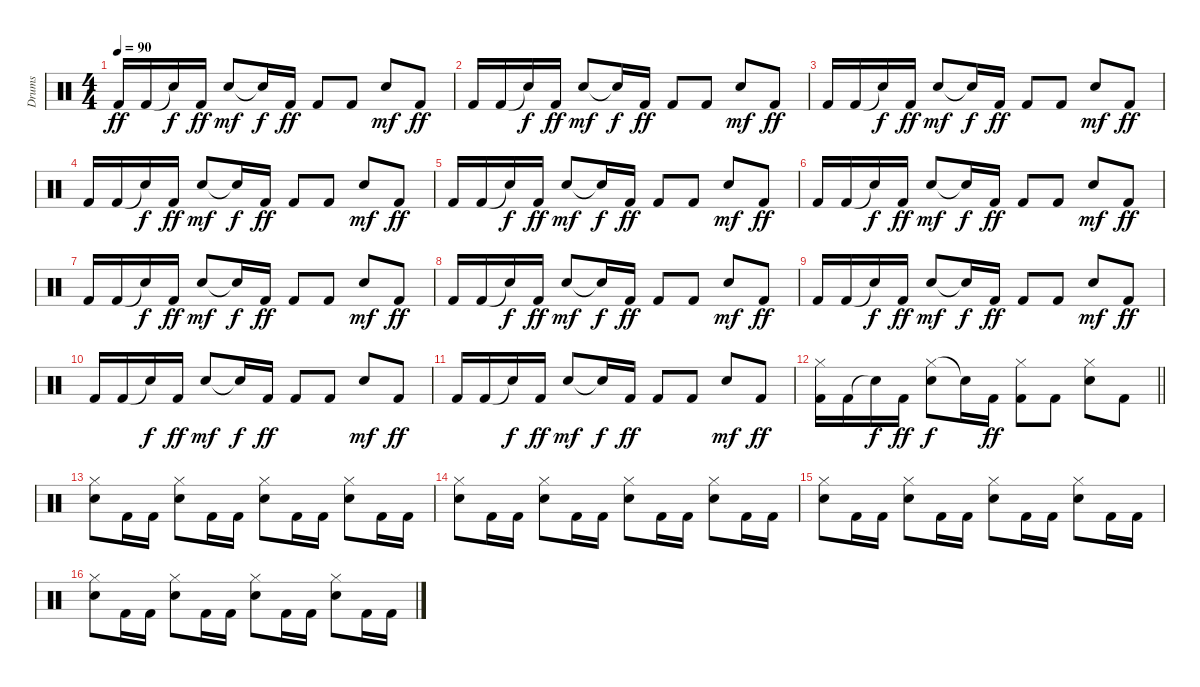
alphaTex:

\track ("Drums" "Drums") {instrument percussion}
\staff {score}
\articulation defaults
\ts (4 4)
\tempo 90
\clef neutral
\ks c "Kick (hit) 2".16{dy ff} "Kick (hit) 2".16 "Snare (hit)"{t}.16{dy f} "Kick (hit) 2".16{dy ff} "Snare (hit) 2".8{dy mf} "Snare (hit)"{t}.16{dy f} "Kick (hit) 2".16{dy ff} "Kick (hit) 2".8 "Kick (hit) 2".8 "Snare (hit) 2".8{dy mf} "Kick (hit) 2".8{dy ff}
|
"Kick (hit) 2".16 "Kick (hit) 2".16 "Snare (hit)"{t}.16{dy f} "Kick (hit) 2".16{dy ff} "Snare (hit) 2".8{dy mf} "Snare (hit)"{t}.16{dy f} "Kick (hit) 2".16{dy ff} "Kick (hit) 2".8 "Kick (hit) 2".8 "Snare (hit) 2".8{dy mf} "Kick (hit) 2".8{dy ff} |
"Kick (hit) 2".16 "Kick (hit) 2".16 "Snare (hit)"{t}.16{dy f} "Kick (hit) 2".16{dy ff} "Snare (hit) 2".8{dy mf} "Snare (hit)"{t}.16{dy f} "Kick (hit) 2".16{dy ff} "Kick (hit) 2".8 "Kick (hit) 2".8 "Snare (hit) 2".8{dy mf} "Kick (hit) 2".8{dy ff} |
"Kick (hit) 2".16 "Kick (hit) 2".16 "Snare (hit)"{t}.16{dy f} "Kick (hit) 2".16{dy ff} "Snare (hit) 2".8{dy mf} "Snare (hit)"{t}.16{dy f} "Kick (hit) 2".16{dy ff} "Kick (hit) 2".8 "Kick (hit) 2".8 "Snare (hit) 2".8{dy mf} "Kick (hit) 2".8{dy ff} |
"Kick (hit) 2".16 "Kick (hit) 2".16 "Snare (hit)"{t}.16{dy f} "Kick (hit) 2".16{dy ff} "Snare (hit) 2".8{dy mf} "Snare (hit)"{t}.16{dy f} "Kick (hit) 2".16{dy ff} "Kick (hit) 2".8 "Kick (hit) 2".8 "Snare (hit) 2".8{dy mf} "Kick (hit) 2".8{dy ff} |
"Kick (hit) 2".16 "Kick (hit) 2".16 "Snare (hit)"{t}.16{dy f} "Kick (hit) 2".16{dy ff} "Snare (hit) 2".8{dy mf} "Snare (hit)"{t}.16{dy f} "Kick (hit) 2".16{dy ff} "Kick (hit) 2".8 "Kick (hit) 2".8 "Snare (hit) 2".8{dy mf} "Kick (hit) 2".8{dy ff} |
"Kick (hit) 2".16 "Kick (hit) 2".16 "Snare (hit)"{t}.16{dy f} "Kick (hit) 2".16{dy ff} "Snare (hit) 2".8{dy mf} "Snare (hit)"{t}.16{dy f} "Kick (hit) 2".16{dy ff} "Kick (hit) 2".8 "Kick (hit) 2".8 "Snare (hit) 2".8{dy mf} "Kick (hit) 2".8{dy ff} |
"Kick (hit) 2".16 "Kick (hit) 2".16 "Snare (hit)"{t}.16{dy f} "Kick (hit) 2".16{dy ff} "Snare (hit) 2".8{dy mf} "Snare (hit)"{t}.16{dy f} "Kick (hit) 2".16{dy ff} "Kick (hit) 2".8 "Kick (hit) 2".8 "Snare (hit) 2".8{dy mf} "Kick (hit) 2".8{dy ff} |
"Kick (hit) 2".16 "Kick (hit) 2".16 "Snare (hit)"{t}.16{dy f} "Kick (hit) 2".16{dy ff} "Snare (hit) 2".8{dy mf} "Snare (hit)"{t}.16{dy f} "Kick (hit) 2".16{dy ff} "Kick (hit) 2".8 "Kick (hit) 2".8 "Snare (hit) 2".8{dy mf} "Kick (hit) 2".8{dy ff} |
"Kick (hit) 2".16 "Kick (hit) 2".16 "Snare (hit)"{t}.16{dy f} "Kick (hit) 2".16{dy ff} "Snare (hit) 2".8{dy mf} "Snare (hit)"{t}.16{dy f} "Kick (hit) 2".16{dy ff} "Kick (hit) 2".8 "Kick (hit) 2".8 "Snare (hit) 2".8{dy mf} "Kick (hit) 2".8{dy ff} |
"Kick (hit) 2".16 "Kick (hit) 2".16 "Snare (hit)"{t}.16{dy f} "Kick (hit) 2".16{dy ff} "Snare (hit) 2".8{dy mf} "Snare (hit)"{t}.16{dy f} "Kick (hit) 2".16{dy ff} "Kick (hit) 2".8 "Kick (hit) 2".8 "Snare (hit) 2".8{dy mf} "Kick (hit) 2".8{dy ff} |
\barLineRight lightlight
("Hi-Hat (closed)" "Kick (hit) 2").16 "Kick (hit) 2".16 "Snare (hit)"{t}.16{dy f} "Kick (hit) 2".16{dy ff} ("Hi-Hat (closed)" "Snare (hit) 2").8{dy f} "Snare (hit)"{t}.16 "Kick (hit) 2".16{dy ff} ("Hi-Hat (closed)" "Kick (hit) 2").8 "Kick (hit) 2".8 ("Hi-Hat (closed)" "Snare (hit) 2").8 "Kick (hit) 2".8 |
\section ("" "")
("Hi-Hat (closed)" "Snare (hit) 2").8 "Kick (hit) 2".16 "Kick (hit) 2".16 ("Hi-Hat (closed)" "Snare (hit) 2").8 "Kick (hit) 2".16 "Kick (hit) 2".16 ("Hi-Hat (closed)" "Snare (hit) 2").8 "Kick (hit) 2".16 "Kick (hit) 2".16 ("Hi-Hat (closed)" "Snare (hit) 2").8 "Kick (hit) 2".16 "Kick (hit) 2".16 |
("Hi-Hat (closed)" "Snare (hit) 2").8 "Kick (hit) 2".16 "Kick (hit) 2".16 ("Hi-Hat (closed)" "Snare (hit) 2").8 "Kick (hit) 2".16 "Kick (hit) 2".16 ("Hi-Hat (closed)" "Snare (hit) 2").8 "Kick (hit) 2".16 "Kick (hit) 2".16 ("Hi-Hat (closed)" "Snare (hit) 2").8 "Kick (hit) 2".16 "Kick (hit) 2".16 |
("Hi-Hat (closed)" "Snare (hit) 2").8 "Kick (hit) 2".16 "Kick (hit) 2".16 ("Hi-Hat (closed)" "Snare (hit) 2").8 "Kick (hit) 2".16 "Kick (hit) 2".16 ("Hi-Hat (closed)" "Snare (hit) 2").8 "Kick (hit) 2".16 "Kick (hit) 2".16 ("Hi-Hat (closed)" "Snare (hit) 2").8 "Kick (hit) 2".16 "Kick (hit) 2".16 |
("Hi-Hat (closed)" "Snare (hit) 2").8 "Kick (hit) 2".16 "Kick (hit) 2".16 ("Hi-Hat (closed)" "Snare (hit) 2").8 "Kick (hit) 2".16 "Kick (hit) 2".16 ("Hi-Hat (closed)" "Snare (hit) 2").8 "Kick (hit) 2".16 "Kick (hit) 2".16 ("Hi-Hat (closed)" "Snare (hit) 2").8 "Kick (hit) 2".16 "Kick (hit) 2".16
